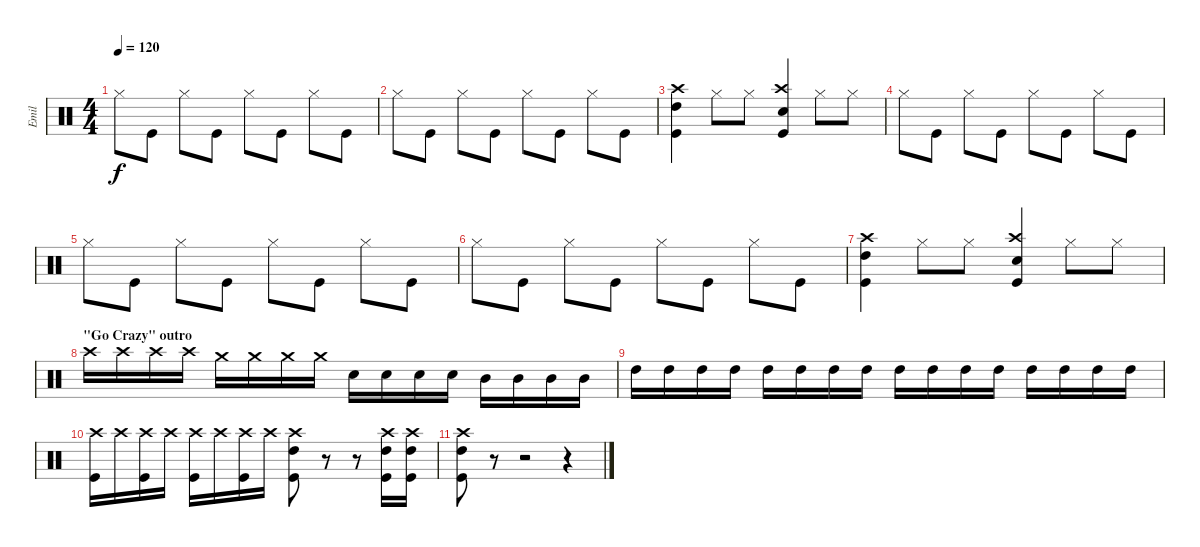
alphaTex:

\track ("Emil" "Emil") {instrument percussion}
\staff {score}
\articulation defaults
\ts (4 4)
\tempo 120
\clef neutral
\ks c "Hi-Hat (closed)".8{dy f} "Kick (hit)".8 "Hi-Hat (closed)".8 "Kick (hit)".8 "Hi-Hat (closed)".8 "Kick (hit)".8 "Hi-Hat (closed)".8 "Kick (hit)".8
|
"Hi-Hat (closed)".8 "Kick (hit)".8 "Hi-Hat (closed)".8 "Kick (hit)".8 "Hi-Hat (closed)".8 "Kick (hit)".8 "Hi-Hat (closed)".8 "Kick (hit)".8 |
("Kick (hit)" "High Tom (hit)" "Crash high (hit)").4 "Hi-Hat (closed)".8 "Hi-Hat (closed)".8 ("Kick (hit)" "Electric Snare (hit)" "Crash high (hit)").4 "Hi-Hat (closed)".8 "Hi-Hat (closed)".8 |
"Hi-Hat (closed)".8 "Kick (hit)".8 "Hi-Hat (closed)".8 "Kick (hit)".8 "Hi-Hat (closed)".8 "Kick (hit)".8 "Hi-Hat (closed)".8 "Kick (hit)".8 |
"Hi-Hat (closed)".8 "Kick (hit)".8 "Hi-Hat (closed)".8 "Kick (hit)".8 "Hi-Hat (closed)".8 "Kick (hit)".8 "Hi-Hat (closed)".8 "Kick (hit)".8 |
"Hi-Hat (closed)".8 "Kick (hit)".8 "Hi-Hat (closed)".8 "Kick (hit)".8 "Hi-Hat (closed)".8 "Kick (hit)".8 "Hi-Hat (closed)".8 "Kick (hit)".8 |
("Kick (hit)" "High Tom (hit)" "Crash high (hit)").4 "Hi-Hat (closed)".8 "Hi-Hat (closed)".8 ("Kick (hit)" "Electric Snare (hit)" "Crash high (hit)").4 "Hi-Hat (closed)".8 "Hi-Hat (closed)".8 |
\section ("" "\"Go Crazy\" outro")
"Crash high (hit)".16 "Crash high (hit)".16 "Crash high (hit)".16 "Crash high (hit)".16 "Crash medium (hit)".16 "Crash medium (hit)".16 "Crash medium (hit)".16 "Crash medium (hit)".16 "Electric Snare (hit)".16 "Electric Snare (hit)".16 "Electric Snare (hit)".16 "Electric Snare (hit)".16 "Mid Tom (hit)".16 "Mid Tom (hit)".16 "Mid Tom (hit)".16 "Mid Tom (hit)".16 |
"High Tom (hit)".16 "High Tom (hit)".16 "High Tom (hit)".16 "High Tom (hit)".16 "High Tom (hit)".16 "High Tom (hit)".16 "High Tom (hit)".16 "High Tom (hit)".16 "High Tom (hit)".16 "High Tom (hit)".16 "High Tom (hit)".16 "High Tom (hit)".16 "High Tom (hit)".16 "High Tom (hit)".16 "High Tom (hit)".16 "High Tom (hit)".16 |
("Crash high (hit)" "Kick (hit)").16 "Crash high (hit)".16 ("Crash high (hit)" "Kick (hit)").16 "Crash high (hit)".16 ("Crash high (hit)" "Kick (hit)").16 "Crash high (hit)".16 ("Crash high (hit)" "Kick (hit)").16 "Crash high (hit)".16 ("Crash high (hit)" "Kick (hit)" "High Tom (hit)").8 r.8 r.8 ("Crash high (hit)" "Kick (hit)" "High Tom (hit)").16 ("Crash high (hit)" "Kick (hit)" "High Tom (hit)").16 |
("Crash high (hit)" "Kick (hit)" "High Tom (hit)").8 r.8 r.2 r.4
